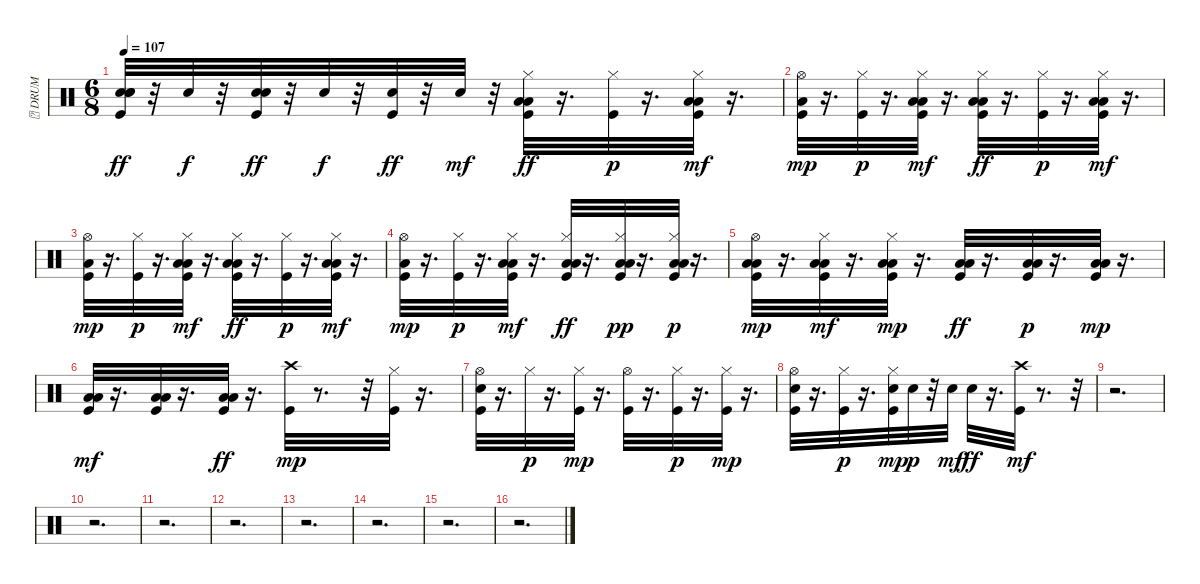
\track ("\t DRUM" "\t DRUM") {instrument percussion}
\staff {score}
\articulation defaults
\ts (6 8)
\tempo 107
\clef neutral
\ks c
("Kick (hit)" "Hand Clap (hit)" "Electric Snare (hit)" "Hand Clap (hit)").32{dy ff} r.32 "Electric Snare (hit)".32{dy f} r.32 ("Kick (hit)" "Hand Clap (hit)" "Electric Snare (hit)").32{dy ff} r.32 "Electric Snare (hit)".32{dy f} r.32 ("Kick (hit)" "Electric Snare (hit)").32{dy ff} r.32 "Electric Snare (hit)".32{dy mf} r.32 ("Kick (hit)" "Low Floor Tom (hit)" "Hi-Hat (closed)" "Low Tom (hit)").32{dy ff} r.16{d} ("Kick (hit)" "Hi-Hat (closed)").32{dy p} r.16{d} ("Kick (hit)" "Low Floor Tom (hit)" "Hi-Hat (closed)" "Low Tom (hit)").32{dy mf} r.16{d} |
("Kick (hit)" "Low Floor Tom (hit)" "Hi-Hat (open)").32{dy mp} r.16{d} ("Kick (hit)" "Hi-Hat (closed)").32{dy p} r.16{d} ("Kick (hit)" "Low Floor Tom (hit)" "Hi-Hat (closed)" "Low Tom (hit)").32{dy mf} r.16{d} ("Kick (hit)" "Low Floor Tom (hit)" "Hi-Hat (closed)" "Low Tom (hit)").32{dy ff} r.16{d} ("Kick (hit)" "Hi-Hat (closed)").32{dy p} r.16{d} ("Kick (hit)" "Low Floor Tom (hit)" "Hi-Hat (closed)" "Low Tom (hit)").32{dy mf} r.16{d} |
("Kick (hit)" "Low Floor Tom (hit)" "Hi-Hat (open)").32{dy mp} r.16{d} ("Kick (hit)" "Hi-Hat (closed)").32{dy p} r.16{d} ("Kick (hit)" "Low Floor Tom (hit)" "Hi-Hat (closed)" "Low Tom (hit)").32{dy mf} r.16{d} ("Kick (hit)" "Low Floor Tom (hit)" "Hi-Hat (closed)" "Low Tom (hit)").32{dy ff} r.16{d} ("Kick (hit)" "Hi-Hat (closed)").32{dy p} r.16{d} ("Kick (hit)" "Low Floor Tom (hit)" "Hi-Hat (closed)" "Low Tom (hit)").32{dy mf} r.16{d} |
("Kick (hit)" "Low Floor Tom (hit)" "Hi-Hat (open)").32{dy mp} r.16{d} ("Kick (hit)" "Hi-Hat (closed)").32{dy p} r.16{d} ("Kick (hit)" "Low Floor Tom (hit)" "Hi-Hat (closed)" "Low Tom (hit)").32{dy mf} r.16{d} ("Kick (hit)" "Low Floor Tom (hit)" "Hi-Hat (closed)" "Low Tom (hit)").32{dy ff} r.16{d} ("Kick (hit)" "Low Floor Tom (hit)" "Hi-Hat (closed)" "Low Tom (hit)").32{dy pp} r.16{d} ("Kick (hit)" "Low Floor Tom (hit)" "Hi-Hat (closed)" "Low Tom (hit)").32{dy p} r.16{d} |
("Kick (hit)" "Low Floor Tom (hit)" "Low Tom (hit)" "Hi-Hat (open)").32{dy mp} r.16{d} ("Kick (hit)" "Low Floor Tom (hit)" "Hi-Hat (closed)" "Low Tom (hit)").32{dy mf} r.16{d} ("Kick (hit)" "Low Floor Tom (hit)" "Hi-Hat (closed)" "Low Tom (hit)").32{dy mp} r.16{d} ("Kick (hit)" "Low Floor Tom (hit)" "Low Tom (hit)").32{dy ff} r.16{d} ("Kick (hit)" "Low Floor Tom (hit)" "Low Tom (hit)").32{dy p} r.16{d} ("Kick (hit)" "Low Floor Tom (hit)" "Low Tom (hit)").32{dy mp} r.16{d} |
("Kick (hit)" "Low Floor Tom (hit)" "Low Tom (hit)").32{dy mf} r.16{d} ("Kick (hit)" "Low Floor Tom (hit)" "Low Tom (hit)").32 r.16{d} ("Kick (hit)" "Low Floor Tom (hit)" "Low Tom (hit)").32{dy ff} r.16{d} ("Kick (hit)" "Crash high (hit)").32{dy mp} r.8{d} r.32 ("Kick (hit)" "Hi-Hat (closed)").32 r.16{d} |
("Kick (hit)" "Electric Snare (hit)" "Hi-Hat (open)").32 r.16{d} "Hi-Hat (closed)".32{dy p} r.16{d} ("Kick (hit)" "Hi-Hat (closed)").32{dy mp} r.16{d} ("Kick (hit)" "Hi-Hat (open)").32 r.16{d} ("Kick (hit)" "Hi-Hat (closed)").32{dy p} r.16{d} ("Kick (hit)" "Hi-Hat (closed)").32{dy mp} r.16{d} |
("Kick (hit)" "Electric Snare (hit)" "Hi-Hat (open)").32 r.16{d} ("Kick (hit)" "Hi-Hat (closed)").32{dy p} r.16{d} ("Kick (hit)" "Electric Snare (hit)" "Hi-Hat (closed)").32{dy mp} "Electric Snare (hit)".32{dy p} r.32 "Electric Snare (hit)".32{dy mf} "Electric Snare (hit)".32{dy ff} r.16{d} ("Kick (hit)" "Crash high (hit)").32{dy mf} r.8{d} r.32 |
r.2{d} |
r.2{d} |
r.2{d} |
r.2{d} |
r.2{d} |
r.2{d} |
r.2{d} |
r.2{d}
